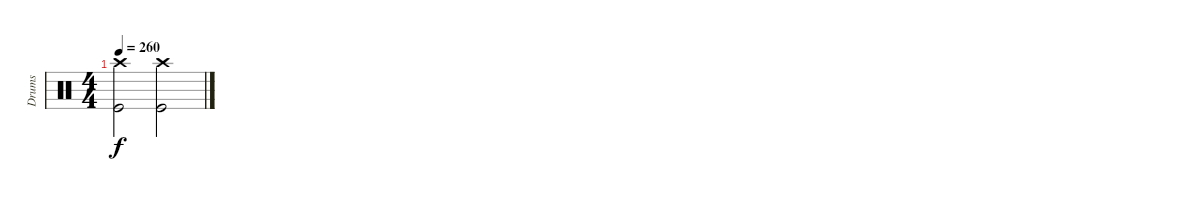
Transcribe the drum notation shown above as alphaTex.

\track ("Drums" "Drums") {instrument percussion}
\staff {score}
\articulation defaults
\ts (4 4)
\tempo 260
\clef neutral
\ks c
("Kick (hit)" "Crash high (hit)").2{dy f} ("Crash high (hit)" "Kick (hit)").2
